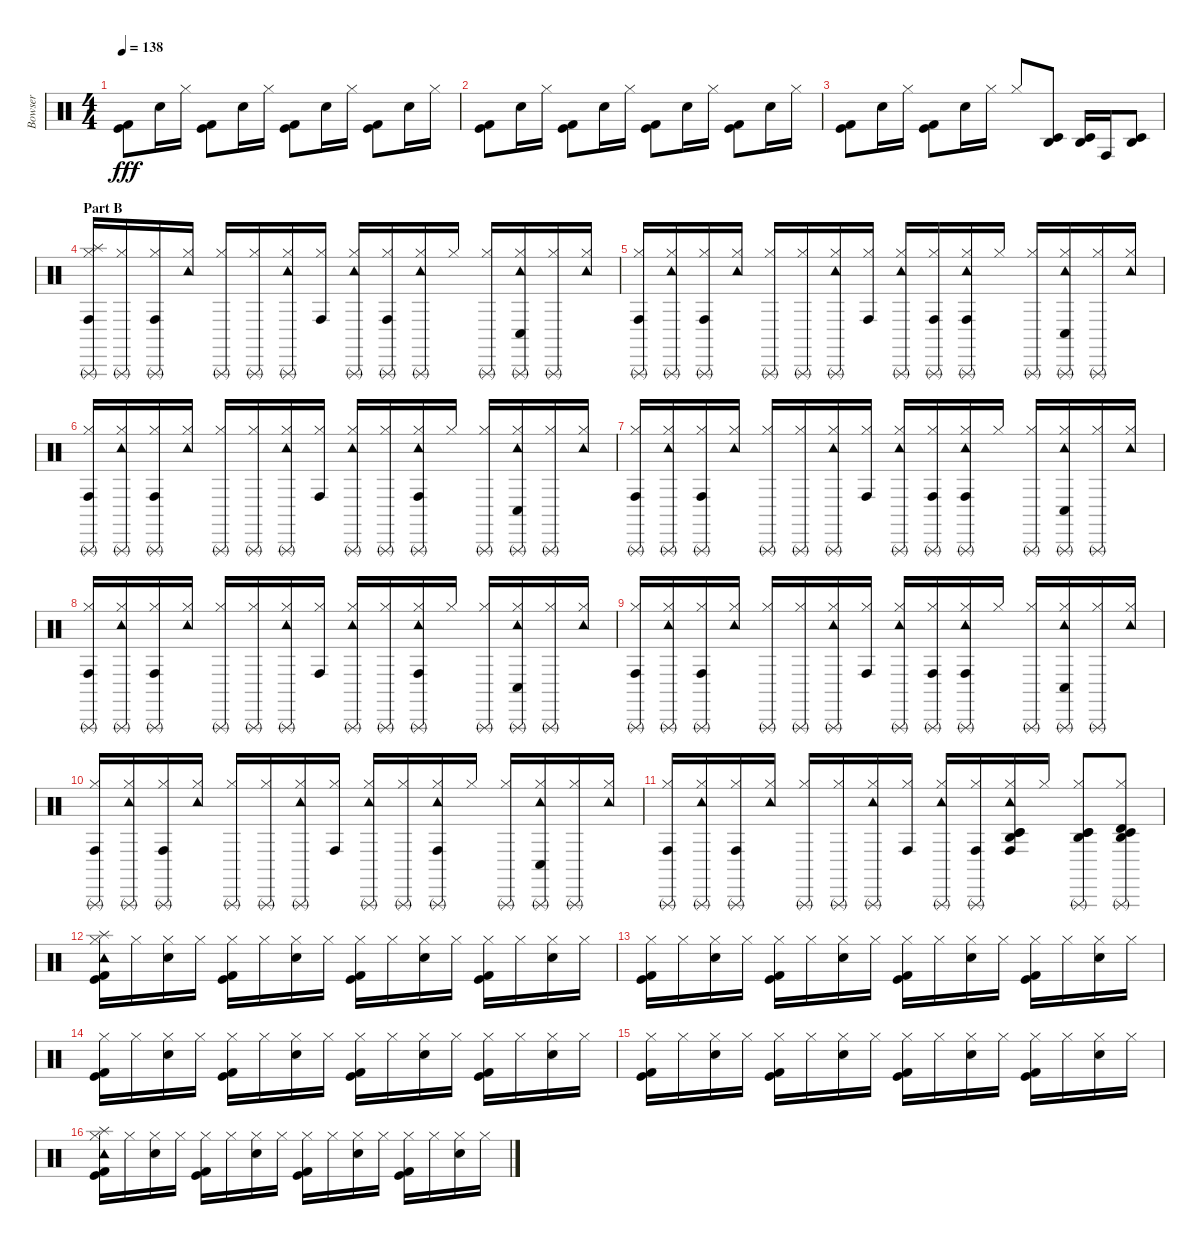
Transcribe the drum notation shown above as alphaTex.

\track ("Bowser" "Bowser") {instrument percussion}
\staff {score}
\articulation defaults
\ts (4 4)
\tempo 138
\clef neutral
\ks c
("Kick (hit)" "Kick (hit) 2").8{dy fff} "Electric Snare (hit)".16 "Hi-Hat (closed)".16 ("Kick (hit)" "Kick (hit) 2").8 "Electric Snare (hit)".16 "Hi-Hat (closed)".16 ("Kick (hit)" "Kick (hit) 2").8 "Electric Snare (hit)".16 "Hi-Hat (closed)".16 ("Kick (hit)" "Kick (hit) 2").8 "Electric Snare (hit)".16 "Hi-Hat (closed)".16 |
("Kick (hit)" "Kick (hit) 2").8 "Electric Snare (hit)".16 "Hi-Hat (closed)".16 ("Kick (hit)" "Kick (hit) 2").8 "Electric Snare (hit)".16 "Hi-Hat (closed)".16 ("Kick (hit)" "Kick (hit) 2").8 "Electric Snare (hit)".16 "Hi-Hat (closed)".16 ("Kick (hit)" "Kick (hit) 2").8 "Electric Snare (hit)".16 "Hi-Hat (closed)".16 |
("Kick (hit)" "Kick (hit) 2").8 "Electric Snare (hit)".16 "Hi-Hat (closed)".16 ("Kick (hit)" "Kick (hit) 2").8 "Electric Snare (hit)".16 "Hi-Hat (closed)".16 "Hi-Hat (closed)".8 ("Timbale low (hit)" "Agogo high (hit)").8 ("Timbale low (hit)" "Agogo high (hit)").16 "Conga high (hit)".16 ("Timbale low (hit)" "Agogo high (hit)").8 |
\section ("" "Part B")
("Hi-Hat (closed)" "Splash (hit)" "Conga high (hit)" "Triangle (rnute)").16{volume 10} ("Hi-Hat (closed)" "Triangle (rnute)").16 ("Hi-Hat (closed)" "Conga high (hit)" "Triangle (rnute)").16 ("Hi-Hat (closed)" "Tambourine (hit)").16 ("Hi-Hat (closed)" "Triangle (rnute)").16 ("Hi-Hat (closed)" "Triangle (rnute)").16 ("Hi-Hat (closed)" "Tambourine (hit)" "Triangle (rnute)").16 ("Hi-Hat (closed)" "Conga high (hit)").16 ("Hi-Hat (closed)" "Tambourine (hit)" "Triangle (rnute)").16 ("Hi-Hat (closed)" "Conga high (hit)" "Triangle (rnute)").16 ("Hi-Hat (closed)" "Tambourine (hit)" "Triangle (rnute)").16 "Hi-Hat (closed)".16 ("Hi-Hat (closed)" "Triangle (rnute)").16 ("Hi-Hat (closed)" "Tambourine (hit)" "Conga low (hit)" "Triangle (rnute)").16 ("Hi-Hat (closed)" "Triangle (rnute)").16 ("Hi-Hat (closed)" "Tambourine (hit)").16 |
("Hi-Hat (closed)" "Conga high (hit)" "Triangle (rnute)").16 ("Hi-Hat (closed)" "Tambourine (hit)" "Triangle (rnute)").16 ("Hi-Hat (closed)" "Conga high (hit)" "Triangle (rnute)").16 ("Hi-Hat (closed)" "Tambourine (hit)").16 ("Hi-Hat (closed)" "Triangle (rnute)").16 ("Hi-Hat (closed)" "Triangle (rnute)").16 ("Hi-Hat (closed)" "Tambourine (hit)" "Triangle (rnute)").16 ("Hi-Hat (closed)" "Conga high (hit)").16 ("Hi-Hat (closed)" "Tambourine (hit)" "Triangle (rnute)").16 ("Hi-Hat (closed)" "Conga high (hit)" "Triangle (rnute)").16 ("Hi-Hat (closed)" "Tambourine (hit)" "Conga high (hit)" "Triangle (rnute)").16 "Hi-Hat (closed)".16 ("Hi-Hat (closed)" "Triangle (rnute)").16 ("Hi-Hat (closed)" "Tambourine (hit)" "Conga low (hit)" "Triangle (rnute)").16 ("Hi-Hat (closed)" "Triangle (rnute)").16 ("Hi-Hat (closed)" "Tambourine (hit)").16 |
("Hi-Hat (closed)" "Conga high (hit)" "Triangle (rnute)").16 ("Hi-Hat (closed)" "Tambourine (hit)" "Triangle (rnute)").16 ("Hi-Hat (closed)" "Conga high (hit)" "Triangle (rnute)").16 ("Hi-Hat (closed)" "Tambourine (hit)").16 ("Hi-Hat (closed)" "Triangle (rnute)").16 ("Hi-Hat (closed)" "Triangle (rnute)").16 ("Hi-Hat (closed)" "Tambourine (hit)" "Triangle (rnute)").16 ("Hi-Hat (closed)" "Conga high (hit)").16 ("Hi-Hat (closed)" "Tambourine (hit)" "Triangle (rnute)").16 ("Hi-Hat (closed)" "Triangle (rnute)").16 ("Hi-Hat (closed)" "Tambourine (hit)" "Conga high (hit)" "Triangle (rnute)").16 "Hi-Hat (closed)".16 ("Hi-Hat (closed)" "Triangle (rnute)").16 ("Hi-Hat (closed)" "Tambourine (hit)" "Conga low (hit)" "Triangle (rnute)").16 ("Hi-Hat (closed)" "Triangle (rnute)").16 ("Hi-Hat (closed)" "Tambourine (hit)").16 |
("Hi-Hat (closed)" "Conga high (hit)" "Triangle (rnute)").16 ("Hi-Hat (closed)" "Tambourine (hit)" "Triangle (rnute)").16 ("Hi-Hat (closed)" "Conga high (hit)" "Triangle (rnute)").16 ("Hi-Hat (closed)" "Tambourine (hit)").16 ("Hi-Hat (closed)" "Triangle (rnute)").16 ("Hi-Hat (closed)" "Triangle (rnute)").16 ("Hi-Hat (closed)" "Tambourine (hit)" "Triangle (rnute)").16 ("Hi-Hat (closed)" "Conga high (hit)").16 ("Hi-Hat (closed)" "Tambourine (hit)" "Triangle (rnute)").16 ("Hi-Hat (closed)" "Conga high (hit)" "Triangle (rnute)").16 ("Hi-Hat (closed)" "Tambourine (hit)" "Conga high (hit)" "Triangle (rnute)").16 "Hi-Hat (closed)".16 ("Hi-Hat (closed)" "Triangle (rnute)").16 ("Hi-Hat (closed)" "Tambourine (hit)" "Conga low (hit)" "Triangle (rnute)").16 ("Hi-Hat (closed)" "Triangle (rnute)").16 ("Hi-Hat (closed)" "Tambourine (hit)").16 |
("Hi-Hat (closed)" "Conga high (hit)" "Triangle (rnute)").16 ("Hi-Hat (closed)" "Tambourine (hit)" "Triangle (rnute)").16 ("Hi-Hat (closed)" "Conga high (hit)" "Triangle (rnute)").16 ("Hi-Hat (closed)" "Tambourine (hit)").16 ("Hi-Hat (closed)" "Triangle (rnute)").16 ("Hi-Hat (closed)" "Triangle (rnute)").16 ("Hi-Hat (closed)" "Tambourine (hit)" "Triangle (rnute)").16 ("Hi-Hat (closed)" "Conga high (hit)").16 ("Hi-Hat (closed)" "Tambourine (hit)" "Triangle (rnute)").16 ("Hi-Hat (closed)" "Triangle (rnute)").16 ("Hi-Hat (closed)" "Tambourine (hit)" "Conga high (hit)" "Triangle (rnute)").16 "Hi-Hat (closed)".16 ("Hi-Hat (closed)" "Triangle (rnute)").16 ("Hi-Hat (closed)" "Tambourine (hit)" "Conga low (hit)" "Triangle (rnute)").16 ("Hi-Hat (closed)" "Triangle (rnute)").16 ("Hi-Hat (closed)" "Tambourine (hit)").16 |
("Hi-Hat (closed)" "Conga high (hit)" "Triangle (rnute)").16 ("Hi-Hat (closed)" "Tambourine (hit)" "Triangle (rnute)").16 ("Hi-Hat (closed)" "Conga high (hit)" "Triangle (rnute)").16 ("Hi-Hat (closed)" "Tambourine (hit)").16 ("Hi-Hat (closed)" "Triangle (rnute)").16 ("Hi-Hat (closed)" "Triangle (rnute)").16 ("Hi-Hat (closed)" "Tambourine (hit)" "Triangle (rnute)").16 ("Hi-Hat (closed)" "Conga high (hit)").16 ("Hi-Hat (closed)" "Tambourine (hit)" "Triangle (rnute)").16 ("Hi-Hat (closed)" "Conga high (hit)" "Triangle (rnute)").16 ("Hi-Hat (closed)" "Tambourine (hit)" "Conga high (hit)" "Triangle (rnute)").16 "Hi-Hat (closed)".16 ("Hi-Hat (closed)" "Triangle (rnute)").16 ("Hi-Hat (closed)" "Tambourine (hit)" "Conga low (hit)" "Triangle (rnute)").16 ("Hi-Hat (closed)" "Triangle (rnute)").16 ("Hi-Hat (closed)" "Tambourine (hit)").16 |
("Hi-Hat (closed)" "Conga high (hit)" "Triangle (rnute)").16 ("Hi-Hat (closed)" "Tambourine (hit)" "Triangle (rnute)").16 ("Hi-Hat (closed)" "Conga high (hit)" "Triangle (rnute)").16 ("Hi-Hat (closed)" "Tambourine (hit)").16 ("Hi-Hat (closed)" "Triangle (rnute)").16 ("Hi-Hat (closed)" "Triangle (rnute)").16 ("Hi-Hat (closed)" "Tambourine (hit)" "Triangle (rnute)").16 ("Hi-Hat (closed)" "Conga high (hit)").16 ("Hi-Hat (closed)" "Tambourine (hit)" "Triangle (rnute)").16 ("Hi-Hat (closed)" "Triangle (rnute)").16 ("Hi-Hat (closed)" "Tambourine (hit)" "Conga high (hit)" "Triangle (rnute)").16 "Hi-Hat (closed)".16 ("Hi-Hat (closed)" "Triangle (rnute)").16 ("Hi-Hat (closed)" "Tambourine (hit)" "Conga low (hit)" "Triangle (rnute)").16 ("Hi-Hat (closed)" "Triangle (rnute)").16 ("Hi-Hat (closed)" "Tambourine (hit)").16 |
("Hi-Hat (closed)" "Conga high (hit)" "Triangle (rnute)").16 ("Hi-Hat (closed)" "Tambourine (hit)" "Triangle (rnute)").16 ("Hi-Hat (closed)" "Conga high (hit)" "Triangle (rnute)").16 ("Hi-Hat (closed)" "Tambourine (hit)").16 ("Hi-Hat (closed)" "Triangle (rnute)").16 ("Hi-Hat (closed)" "Triangle (rnute)").16 ("Hi-Hat (closed)" "Tambourine (hit)" "Triangle (rnute)").16 ("Hi-Hat (closed)" "Conga high (hit)").16 ("Hi-Hat (closed)" "Tambourine (hit)" "Triangle (rnute)").16 ("Hi-Hat (closed)" "Conga high (hit)" "Triangle (rnute)").16 ("Hi-Hat (closed)" "Tambourine (hit)" "Conga high (hit)" "Timbale low (hit)" "Timbale low (hit)" "Agogo high (hit)").16 "Hi-Hat (closed)".16 ("Hi-Hat (closed)" "Timbale low (hit)" "Timbale low (hit)" "Agogo high (hit)" "Triangle (rnute)").8 ("Hi-Hat (closed)" "Timbale high (hit)" "Timbale low (hit)" "Agogo high (hit)" "Triangle (rnute)").8 |
("Kick (hit)" "Kick (hit) 2" "Hi-Hat (closed)" "Tambourine (hit)" "Splash (hit)").16{volume 12} "Hi-Hat (closed)".16 ("Electric Snare (hit)" "Hi-Hat (closed)").16 "Hi-Hat (closed)".16 ("Kick (hit)" "Kick (hit) 2" "Hi-Hat (closed)").16 "Hi-Hat (closed)".16 ("Electric Snare (hit)" "Hi-Hat (closed)").16 "Hi-Hat (closed)".16 ("Kick (hit)" "Kick (hit) 2" "Hi-Hat (closed)").16 "Hi-Hat (closed)".16 ("Electric Snare (hit)" "Hi-Hat (closed)").16 "Hi-Hat (closed)".16 ("Kick (hit)" "Kick (hit) 2" "Hi-Hat (closed)").16 "Hi-Hat (closed)".16 ("Electric Snare (hit)" "Hi-Hat (closed)").16 "Hi-Hat (closed)".16 |
("Kick (hit)" "Kick (hit) 2" "Hi-Hat (closed)").16 "Hi-Hat (closed)".16 ("Electric Snare (hit)" "Hi-Hat (closed)").16 "Hi-Hat (closed)".16 ("Kick (hit)" "Kick (hit) 2" "Hi-Hat (closed)").16 "Hi-Hat (closed)".16 ("Electric Snare (hit)" "Hi-Hat (closed)").16 "Hi-Hat (closed)".16 ("Kick (hit)" "Kick (hit) 2" "Hi-Hat (closed)").16 "Hi-Hat (closed)".16 ("Electric Snare (hit)" "Hi-Hat (closed)").16 "Hi-Hat (closed)".16 ("Kick (hit)" "Kick (hit) 2" "Hi-Hat (closed)").16 "Hi-Hat (closed)".16 ("Electric Snare (hit)" "Hi-Hat (closed)").16 "Hi-Hat (closed)".16 |
("Kick (hit)" "Kick (hit) 2" "Hi-Hat (closed)").16 "Hi-Hat (closed)".16 ("Electric Snare (hit)" "Hi-Hat (closed)").16 "Hi-Hat (closed)".16 ("Kick (hit)" "Kick (hit) 2" "Hi-Hat (closed)").16 "Hi-Hat (closed)".16 ("Electric Snare (hit)" "Hi-Hat (closed)").16 "Hi-Hat (closed)".16 ("Kick (hit)" "Kick (hit) 2" "Hi-Hat (closed)").16 "Hi-Hat (closed)".16 ("Electric Snare (hit)" "Hi-Hat (closed)").16 "Hi-Hat (closed)".16 ("Kick (hit)" "Kick (hit) 2" "Hi-Hat (closed)").16 "Hi-Hat (closed)".16 ("Electric Snare (hit)" "Hi-Hat (closed)").16 "Hi-Hat (closed)".16 |
("Kick (hit)" "Kick (hit) 2" "Hi-Hat (closed)").16 "Hi-Hat (closed)".16 ("Electric Snare (hit)" "Hi-Hat (closed)").16 "Hi-Hat (closed)".16 ("Kick (hit)" "Kick (hit) 2" "Hi-Hat (closed)").16 "Hi-Hat (closed)".16 ("Electric Snare (hit)" "Hi-Hat (closed)").16 "Hi-Hat (closed)".16 ("Kick (hit)" "Kick (hit) 2" "Hi-Hat (closed)").16 "Hi-Hat (closed)".16 ("Electric Snare (hit)" "Hi-Hat (closed)").16 "Hi-Hat (closed)".16 ("Kick (hit)" "Kick (hit) 2" "Hi-Hat (closed)").16 "Hi-Hat (closed)".16 ("Electric Snare (hit)" "Hi-Hat (closed)").16 "Hi-Hat (closed)".16 |
("Kick (hit)" "Kick (hit) 2" "Hi-Hat (closed)" "Tambourine (hit)" "Splash (hit)").16 "Hi-Hat (closed)".16 ("Electric Snare (hit)" "Hi-Hat (closed)").16 "Hi-Hat (closed)".16 ("Kick (hit)" "Kick (hit) 2" "Hi-Hat (closed)").16 "Hi-Hat (closed)".16 ("Electric Snare (hit)" "Hi-Hat (closed)").16 "Hi-Hat (closed)".16 ("Kick (hit)" "Kick (hit) 2" "Hi-Hat (closed)").16 "Hi-Hat (closed)".16 ("Electric Snare (hit)" "Hi-Hat (closed)").16 "Hi-Hat (closed)".16 ("Kick (hit)" "Kick (hit) 2" "Hi-Hat (closed)").16 "Hi-Hat (closed)".16 ("Electric Snare (hit)" "Hi-Hat (closed)").16 "Hi-Hat (closed)".16
